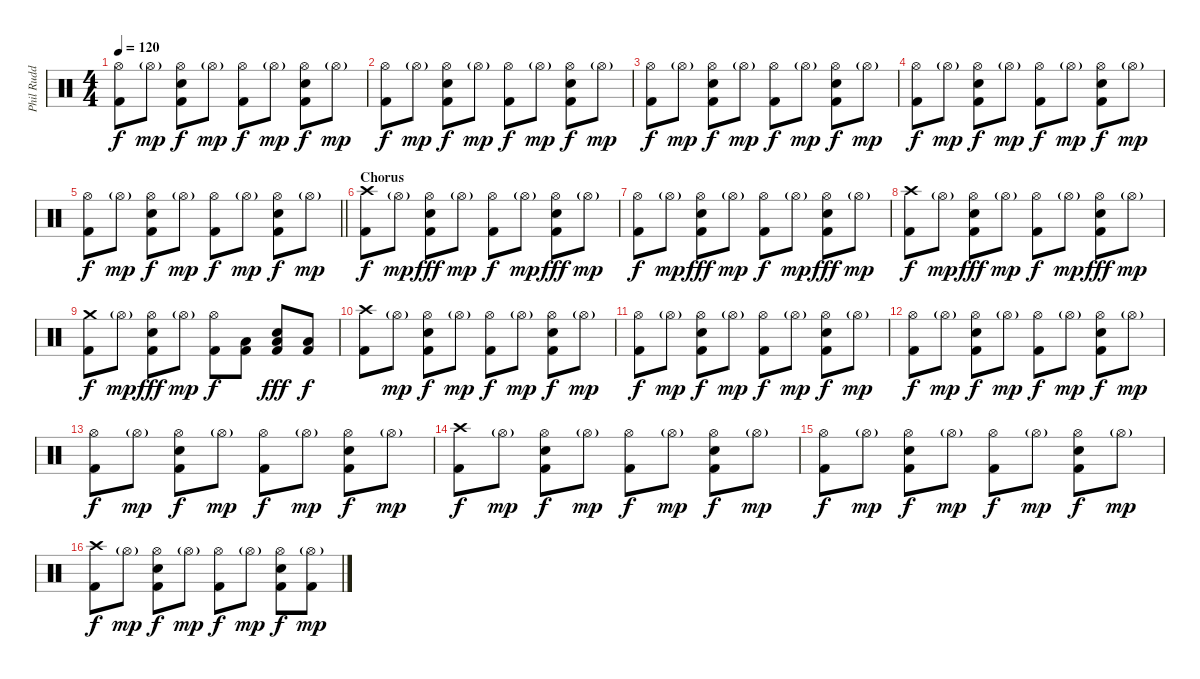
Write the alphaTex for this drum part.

\track ("Phil Rudd" "Phil Rudd") {instrument percussion}
\staff {score}
\articulation defaults
\ts (4 4)
\tempo 120
\clef neutral
\ks c
("Hi-Hat (open)" "Kick (hit) 2").8{dy f} "Hi-Hat (open)"{g}.8{dy mp} ("Hi-Hat (open)" "Electric Snare (hit)" "Kick (hit) 2").8{dy f} "Hi-Hat (open)"{g}.8{dy mp} ("Hi-Hat (open)" "Kick (hit) 2").8{dy f} "Hi-Hat (open)"{g}.8{dy mp} ("Hi-Hat (open)" "Electric Snare (hit)" "Kick (hit) 2").8{dy f} "Hi-Hat (open)"{g}.8{dy mp} |
("Hi-Hat (open)" "Kick (hit) 2").8{dy f} "Hi-Hat (open)"{g}.8{dy mp} ("Hi-Hat (open)" "Electric Snare (hit)" "Kick (hit) 2").8{dy f} "Hi-Hat (open)"{g}.8{dy mp} ("Hi-Hat (open)" "Kick (hit) 2").8{dy f} "Hi-Hat (open)"{g}.8{dy mp} ("Hi-Hat (open)" "Electric Snare (hit)" "Kick (hit) 2").8{dy f} "Hi-Hat (open)"{g}.8{dy mp} |
("Hi-Hat (open)" "Kick (hit) 2").8{dy f} "Hi-Hat (open)"{g}.8{dy mp} ("Hi-Hat (open)" "Electric Snare (hit)" "Kick (hit) 2").8{dy f} "Hi-Hat (open)"{g}.8{dy mp} ("Hi-Hat (open)" "Kick (hit) 2").8{dy f} "Hi-Hat (open)"{g}.8{dy mp} ("Hi-Hat (open)" "Electric Snare (hit)" "Kick (hit) 2").8{dy f} "Hi-Hat (open)"{g}.8{dy mp} |
("Hi-Hat (open)" "Kick (hit) 2").8{dy f} "Hi-Hat (open)"{g}.8{dy mp} ("Hi-Hat (open)" "Electric Snare (hit)" "Kick (hit) 2").8{dy f} "Hi-Hat (open)"{g}.8{dy mp} ("Hi-Hat (open)" "Kick (hit) 2").8{dy f} "Hi-Hat (open)"{g}.8{dy mp} ("Hi-Hat (open)" "Electric Snare (hit)" "Kick (hit) 2").8{dy f} "Hi-Hat (open)"{g}.8{dy mp} |
\barLineRight lightlight
("Hi-Hat (open)" "Kick (hit) 2").8{dy f} "Hi-Hat (open)"{g}.8{dy mp} ("Hi-Hat (open)" "Electric Snare (hit)" "Kick (hit) 2").8{dy f} "Hi-Hat (open)"{g}.8{dy mp} ("Hi-Hat (open)" "Kick (hit) 2").8{dy f} "Hi-Hat (open)"{g}.8{dy mp} ("Hi-Hat (open)" "Electric Snare (hit)" "Kick (hit) 2").8{dy f} "Hi-Hat (open)"{g}.8{dy mp} |
\section ("" "Chorus")
("Crash high (hit)" "Kick (hit) 2").8{dy f} "Hi-Hat (open)"{g}.8{dy mp} ("Hi-Hat (open)" "Electric Snare (hit)" "Kick (hit) 2").8{dy fff} "Hi-Hat (open)"{g}.8{dy mp} ("Hi-Hat (open)" "Kick (hit) 2").8{dy f} "Hi-Hat (open)"{g}.8{dy mp} ("Hi-Hat (open)" "Electric Snare (hit)" "Kick (hit) 2").8{dy fff} "Hi-Hat (open)"{g}.8{dy mp} |
("Hi-Hat (open)" "Kick (hit) 2").8{dy f} "Hi-Hat (open)"{g}.8{dy mp} ("Hi-Hat (open)" "Electric Snare (hit)" "Kick (hit) 2").8{dy fff} "Hi-Hat (open)"{g}.8{dy mp} ("Hi-Hat (open)" "Kick (hit) 2").8{dy f} "Hi-Hat (open)"{g}.8{dy mp} ("Hi-Hat (open)" "Electric Snare (hit)" "Kick (hit) 2").8{dy fff} "Hi-Hat (open)"{g}.8{dy mp} |
("Crash high (hit)" "Kick (hit) 2").8{dy f} "Hi-Hat (open)"{g}.8{dy mp} ("Hi-Hat (open)" "Electric Snare (hit)" "Kick (hit) 2").8{dy fff} "Hi-Hat (open)"{g}.8{dy mp} ("Hi-Hat (open)" "Kick (hit) 2").8{dy f} "Hi-Hat (open)"{g}.8{dy mp} ("Hi-Hat (open)" "Electric Snare (hit)" "Kick (hit) 2").8{dy fff} "Hi-Hat (open)"{g}.8{dy mp} |
("Crash medium (hit)" "Kick (hit) 2").8{dy f} "Hi-Hat (open)"{g}.8{dy mp} ("Hi-Hat (open)" "Electric Snare (hit)" "Kick (hit) 2").8{dy fff} "Hi-Hat (open)"{g}.8{dy mp} ("Hi-Hat (open)" "Kick (hit) 2").8{dy f} ("Low Floor Tom (hit)" "Kick (hit) 2").8 ("Electric Snare (hit)" "Low Floor Tom (hit)" "Kick (hit) 2").8{dy fff} ("Low Floor Tom (hit)" "Kick (hit) 2").8{dy f} |
("Crash high (hit)" "Kick (hit) 2").8 "Hi-Hat (open)"{g}.8{dy mp} ("Hi-Hat (open)" "Electric Snare (hit)" "Kick (hit) 2").8{dy f} "Hi-Hat (open)"{g}.8{dy mp} ("Hi-Hat (open)" "Kick (hit) 2").8{dy f} "Hi-Hat (open)"{g}.8{dy mp} ("Hi-Hat (open)" "Electric Snare (hit)" "Kick (hit) 2").8{dy f} "Hi-Hat (open)"{g}.8{dy mp} |
("Hi-Hat (open)" "Kick (hit) 2").8{dy f} "Hi-Hat (open)"{g}.8{dy mp} ("Hi-Hat (open)" "Electric Snare (hit)" "Kick (hit) 2").8{dy f} "Hi-Hat (open)"{g}.8{dy mp} ("Hi-Hat (open)" "Kick (hit) 2").8{dy f} "Hi-Hat (open)"{g}.8{dy mp} ("Hi-Hat (open)" "Electric Snare (hit)" "Kick (hit) 2").8{dy f} "Hi-Hat (open)"{g}.8{dy mp} |
("Hi-Hat (open)" "Kick (hit) 2").8{dy f} "Hi-Hat (open)"{g}.8{dy mp} ("Hi-Hat (open)" "Electric Snare (hit)" "Kick (hit) 2").8{dy f} "Hi-Hat (open)"{g}.8{dy mp} ("Hi-Hat (open)" "Kick (hit) 2").8{dy f} "Hi-Hat (open)"{g}.8{dy mp} ("Hi-Hat (open)" "Electric Snare (hit)" "Kick (hit) 2").8{dy f} "Hi-Hat (open)"{g}.8{dy mp} |
("Hi-Hat (open)" "Kick (hit) 2").8{dy f} "Hi-Hat (open)"{g}.8{dy mp} ("Hi-Hat (open)" "Electric Snare (hit)" "Kick (hit) 2").8{dy f} "Hi-Hat (open)"{g}.8{dy mp} ("Hi-Hat (open)" "Kick (hit) 2").8{dy f} "Hi-Hat (open)"{g}.8{dy mp} ("Hi-Hat (open)" "Electric Snare (hit)" "Kick (hit) 2").8{dy f} "Hi-Hat (open)"{g}.8{dy mp} |
("Crash high (hit)" "Kick (hit) 2").8{dy f} "Hi-Hat (open)"{g}.8{dy mp} ("Hi-Hat (open)" "Electric Snare (hit)" "Kick (hit) 2").8{dy f} "Hi-Hat (open)"{g}.8{dy mp} ("Hi-Hat (open)" "Kick (hit) 2").8{dy f} "Hi-Hat (open)"{g}.8{dy mp} ("Hi-Hat (open)" "Electric Snare (hit)" "Kick (hit) 2").8{dy f} "Hi-Hat (open)"{g}.8{dy mp} |
("Hi-Hat (open)" "Kick (hit) 2").8{dy f} "Hi-Hat (open)"{g}.8{dy mp} ("Hi-Hat (open)" "Electric Snare (hit)" "Kick (hit) 2").8{dy f} "Hi-Hat (open)"{g}.8{dy mp} ("Hi-Hat (open)" "Kick (hit) 2").8{dy f} "Hi-Hat (open)"{g}.8{dy mp} ("Hi-Hat (open)" "Electric Snare (hit)" "Kick (hit) 2").8{dy f} "Hi-Hat (open)"{g}.8{dy mp} |
("Crash high (hit)" "Kick (hit) 2").8{dy f} "Hi-Hat (open)"{g}.8{dy mp} ("Hi-Hat (open)" "Electric Snare (hit)" "Kick (hit) 2").8{dy f} "Hi-Hat (open)"{g}.8{dy mp} ("Hi-Hat (open)" "Kick (hit) 2").8{dy f} "Hi-Hat (open)"{g}.8{dy mp} ("Hi-Hat (open)" "Electric Snare (hit)" "Kick (hit) 2").8{dy f} ("Hi-Hat (open)"{g} "Kick (hit) 2").8{dy mp}
